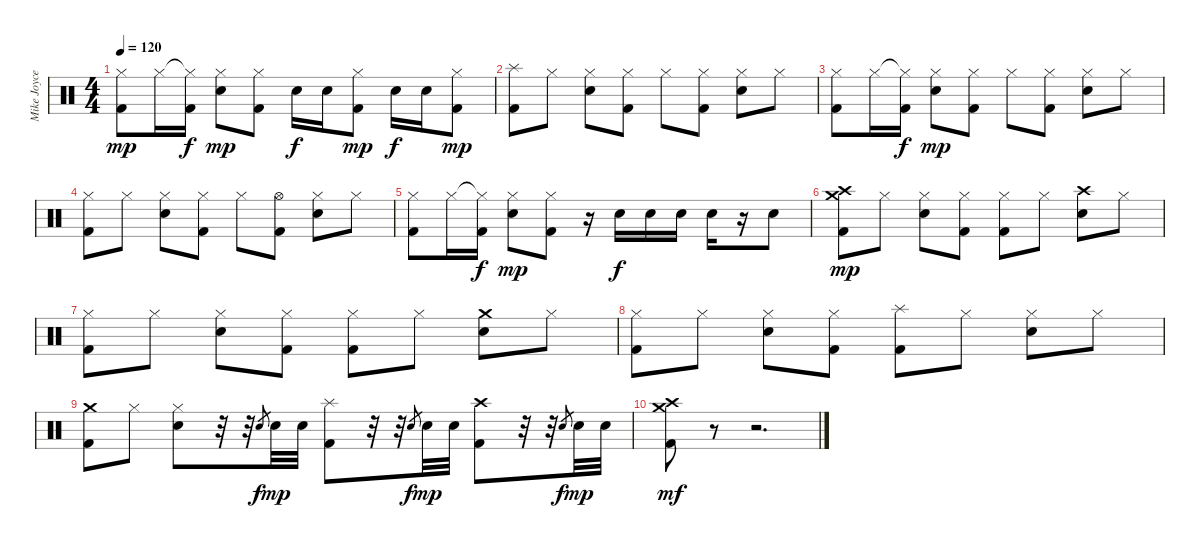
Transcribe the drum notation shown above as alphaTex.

\track ("Mike Joyce" "Mike Joyce") {instrument percussion}
\staff {score}
\articulation defaults
\ts (4 4)
\tempo 120
\clef neutral
\ks c
("Hi-Hat (closed)" "Kick (hit) 2").8{dy mp} "Hi-Hat (closed)".16 ("Hi-Hat (closed)"{t} "Kick (hit) 2").16{dy f} ("Hi-Hat (closed)" "Electric Snare (hit)").8{dy mp} ("Hi-Hat (closed)" "Kick (hit) 2").8 "Electric Snare (hit)".16{dy f} "Electric Snare (hit)".16 ("Hi-Hat (closed)" "Kick (hit) 2").8{dy mp} "Electric Snare (hit)".16{dy f} "Electric Snare (hit)".16 ("Hi-Hat (closed)" "Kick (hit) 2").8{dy mp} |
("Splash (hit)" "Kick (hit) 2").8 "Hi-Hat (closed)".8 ("Hi-Hat (closed)" "Electric Snare (hit)").8 ("Hi-Hat (closed)" "Kick (hit) 2").8 "Hi-Hat (closed)".8 ("Hi-Hat (closed)" "Kick (hit) 2").8 ("Hi-Hat (closed)" "Electric Snare (hit)").8 "Hi-Hat (closed)".8 |
("Hi-Hat (closed)" "Kick (hit) 2").8 "Hi-Hat (closed)".16 ("Hi-Hat (closed)"{t} "Kick (hit) 2").16{dy f} ("Hi-Hat (closed)" "Electric Snare (hit)").8{dy mp} ("Hi-Hat (closed)" "Kick (hit) 2").8 "Hi-Hat (closed)".8 ("Hi-Hat (closed)" "Kick (hit) 2").8 ("Hi-Hat (closed)" "Electric Snare (hit)").8 "Hi-Hat (closed)".8 |
("Hi-Hat (closed)" "Kick (hit) 2").8 "Hi-Hat (closed)".8 ("Hi-Hat (closed)" "Electric Snare (hit)").8 ("Hi-Hat (closed)" "Kick (hit) 2").8 "Hi-Hat (closed)".8 ("Hi-Hat (open)" "Kick (hit) 2").8 ("Hi-Hat (closed)" "Electric Snare (hit)").8 "Hi-Hat (closed)".8 |
("Hi-Hat (closed)" "Kick (hit) 2").8 "Hi-Hat (closed)".16 ("Hi-Hat (closed)"{t} "Kick (hit) 2").16{dy f} ("Hi-Hat (closed)" "Electric Snare (hit)").8{dy mp} ("Hi-Hat (closed)" "Kick (hit) 2").8 r.16 "Electric Snare (hit)".16{dy f} "Electric Snare (hit)".16 "Electric Snare (hit)".16 "Electric Snare (hit)".16 r.16 "Electric Snare (hit)".8 |
("Crash high (hit)" "Crash medium (hit)" "Kick (hit) 2").8{dy mp} "Hi-Hat (closed)".8 ("Hi-Hat (closed)" "Electric Snare (hit)").8 ("Hi-Hat (closed)" "Kick (hit) 2").8 ("Hi-Hat (closed)" "Kick (hit) 2").8 "Hi-Hat (closed)".8 ("Crash high (hit)" "Electric Snare (hit)").8 "Hi-Hat (closed)".8 |
("Hi-Hat (closed)" "Kick (hit) 2").8 "Hi-Hat (closed)".8 ("Hi-Hat (closed)" "Electric Snare (hit)").8 ("Hi-Hat (closed)" "Kick (hit) 2").8 ("Hi-Hat (closed)" "Kick (hit) 2").8 "Hi-Hat (closed)".8 ("Crash medium (hit)" "Electric Snare (hit)").8 "Hi-Hat (closed)".8 |
("Hi-Hat (closed)" "Kick (hit) 2").8 "Hi-Hat (closed)".8 ("Hi-Hat (closed)" "Electric Snare (hit)").8 ("Hi-Hat (closed)" "Kick (hit) 2").8 ("Splash (hit)" "Kick (hit) 2").8 "Hi-Hat (closed)".8 ("Hi-Hat (closed)" "Electric Snare (hit)").8 "Hi-Hat (closed)".8 |
("Crash medium (hit)" "Kick (hit) 2").8 "Hi-Hat (closed)".8 ("Hi-Hat (closed)" "Electric Snare (hit)").8 r.32 r.32 "Electric Snare (hit)".8{gr dy f} "Electric Snare (hit)".32{dy mp} "Electric Snare (hit)".32 ("Splash (hit)" "Kick (hit) 2").8 r.32 r.32 "Electric Snare (hit)".8{gr dy f} "Electric Snare (hit)".32{dy mp} "Electric Snare (hit)".32 ("Crash high (hit)" "Kick (hit) 2").8 r.32 r.32 "Electric Snare (hit)".8{gr dy f} "Electric Snare (hit)".32{dy mp} "Electric Snare (hit)".32 |
("Crash medium (hit)" "Crash high (hit)" "Kick (hit) 2").8{dy mf} r.8 r.2{d}
